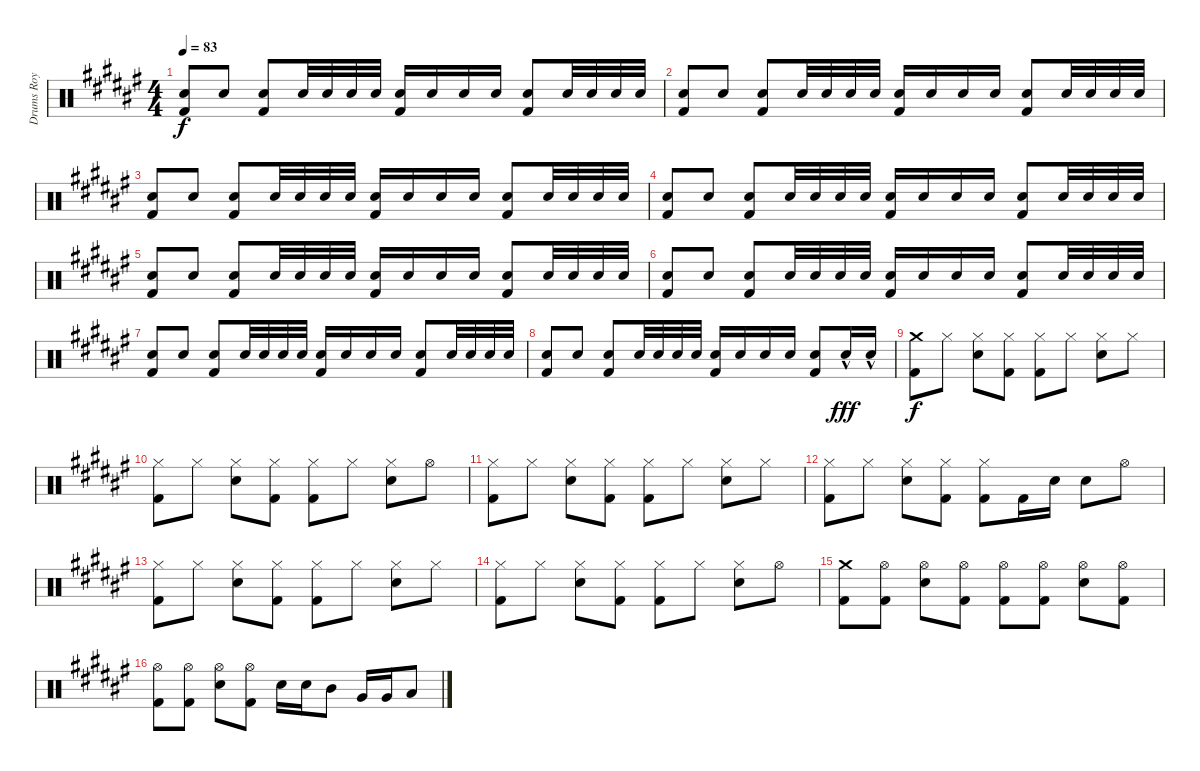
\track ("Drums Roy" "Drums Roy") {instrument percussion}
\staff {score}
\articulation defaults
\ts (4 4)
\tempo 83
\clef neutral
\ks d#minor
("Electric Snare (hit)" "Kick (hit) 2").8{dy f} "Electric Snare (hit)".8 ("Electric Snare (hit)" "Kick (hit) 2").8 "Electric Snare (hit)".32 "Electric Snare (hit)".32 "Electric Snare (hit)".32 "Electric Snare (hit)".32 ("Electric Snare (hit)" "Kick (hit) 2").16 "Electric Snare (hit)".16 "Electric Snare (hit)".16 "Electric Snare (hit)".16 ("Electric Snare (hit)" "Kick (hit) 2").8 "Electric Snare (hit)".32 "Electric Snare (hit)".32 "Electric Snare (hit)".32 "Electric Snare (hit)".32 |
("Electric Snare (hit)" "Kick (hit) 2").8 "Electric Snare (hit)".8 ("Electric Snare (hit)" "Kick (hit) 2").8 "Electric Snare (hit)".32 "Electric Snare (hit)".32 "Electric Snare (hit)".32 "Electric Snare (hit)".32 ("Electric Snare (hit)" "Kick (hit) 2").16 "Electric Snare (hit)".16 "Electric Snare (hit)".16 "Electric Snare (hit)".16 ("Electric Snare (hit)" "Kick (hit) 2").8 "Electric Snare (hit)".32 "Electric Snare (hit)".32 "Electric Snare (hit)".32 "Electric Snare (hit)".32 |
("Electric Snare (hit)" "Kick (hit) 2").8 "Electric Snare (hit)".8 ("Electric Snare (hit)" "Kick (hit) 2").8 "Electric Snare (hit)".32 "Electric Snare (hit)".32 "Electric Snare (hit)".32 "Electric Snare (hit)".32 ("Electric Snare (hit)" "Kick (hit) 2").16 "Electric Snare (hit)".16 "Electric Snare (hit)".16 "Electric Snare (hit)".16 ("Electric Snare (hit)" "Kick (hit) 2").8 "Electric Snare (hit)".32 "Electric Snare (hit)".32 "Electric Snare (hit)".32 "Electric Snare (hit)".32 |
("Electric Snare (hit)" "Kick (hit) 2").8 "Electric Snare (hit)".8 ("Electric Snare (hit)" "Kick (hit) 2").8 "Electric Snare (hit)".32 "Electric Snare (hit)".32 "Electric Snare (hit)".32 "Electric Snare (hit)".32 ("Electric Snare (hit)" "Kick (hit) 2").16 "Electric Snare (hit)".16 "Electric Snare (hit)".16 "Electric Snare (hit)".16 ("Electric Snare (hit)" "Kick (hit) 2").8 "Electric Snare (hit)".32 "Electric Snare (hit)".32 "Electric Snare (hit)".32 "Electric Snare (hit)".32 |
("Electric Snare (hit)" "Kick (hit) 2").8 "Electric Snare (hit)".8 ("Electric Snare (hit)" "Kick (hit) 2").8 "Electric Snare (hit)".32 "Electric Snare (hit)".32 "Electric Snare (hit)".32 "Electric Snare (hit)".32 ("Electric Snare (hit)" "Kick (hit) 2").16 "Electric Snare (hit)".16 "Electric Snare (hit)".16 "Electric Snare (hit)".16 ("Electric Snare (hit)" "Kick (hit) 2").8 "Electric Snare (hit)".32 "Electric Snare (hit)".32 "Electric Snare (hit)".32 "Electric Snare (hit)".32 |
("Electric Snare (hit)" "Kick (hit) 2").8 "Electric Snare (hit)".8 ("Electric Snare (hit)" "Kick (hit) 2").8 "Electric Snare (hit)".32 "Electric Snare (hit)".32 "Electric Snare (hit)".32 "Electric Snare (hit)".32 ("Electric Snare (hit)" "Kick (hit) 2").16 "Electric Snare (hit)".16 "Electric Snare (hit)".16 "Electric Snare (hit)".16 ("Electric Snare (hit)" "Kick (hit) 2").8 "Electric Snare (hit)".32 "Electric Snare (hit)".32 "Electric Snare (hit)".32 "Electric Snare (hit)".32 |
("Electric Snare (hit)" "Kick (hit) 2").8 "Electric Snare (hit)".8 ("Electric Snare (hit)" "Kick (hit) 2").8 "Electric Snare (hit)".32 "Electric Snare (hit)".32 "Electric Snare (hit)".32 "Electric Snare (hit)".32 ("Electric Snare (hit)" "Kick (hit) 2").16 "Electric Snare (hit)".16 "Electric Snare (hit)".16 "Electric Snare (hit)".16 ("Electric Snare (hit)" "Kick (hit) 2").8 "Electric Snare (hit)".32 "Electric Snare (hit)".32 "Electric Snare (hit)".32 "Electric Snare (hit)".32 |
("Electric Snare (hit)" "Kick (hit) 2").8 "Electric Snare (hit)".8 ("Electric Snare (hit)" "Kick (hit) 2").8 "Electric Snare (hit)".32 "Electric Snare (hit)".32 "Electric Snare (hit)".32 "Electric Snare (hit)".32 ("Electric Snare (hit)" "Kick (hit) 2").16 "Electric Snare (hit)".16 "Electric Snare (hit)".16 "Electric Snare (hit)".16 ("Electric Snare (hit)" "Kick (hit) 2").8 "Electric Snare (hit)"{hac}.16{dy fff} "Electric Snare (hit)"{hac}.16 |
("Crash medium (hit)" "Kick (hit) 2").8{dy f} "Hi-Hat (closed)".8 ("Hi-Hat (closed)" "Electric Snare (hit)").8 ("Hi-Hat (closed)" "Kick (hit) 2").8 ("Hi-Hat (closed)" "Kick (hit) 2").8 "Hi-Hat (closed)".8 ("Hi-Hat (closed)" "Electric Snare (hit)").8 "Hi-Hat (closed)".8 |
("Hi-Hat (closed)" "Kick (hit) 2").8 "Hi-Hat (closed)".8 ("Hi-Hat (closed)" "Electric Snare (hit)").8 ("Hi-Hat (closed)" "Kick (hit) 2").8 ("Hi-Hat (closed)" "Kick (hit) 2").8 "Hi-Hat (closed)".8 ("Hi-Hat (closed)" "Electric Snare (hit)").8 "Hi-Hat (open)".8 |
("Hi-Hat (closed)" "Kick (hit) 2").8 "Hi-Hat (closed)".8 ("Hi-Hat (closed)" "Electric Snare (hit)").8 ("Hi-Hat (closed)" "Kick (hit) 2").8 ("Hi-Hat (closed)" "Kick (hit) 2").8 "Hi-Hat (closed)".8 ("Hi-Hat (closed)" "Electric Snare (hit)").8 "Hi-Hat (closed)".8 |
("Hi-Hat (closed)" "Kick (hit) 2").8 "Hi-Hat (closed)".8 ("Hi-Hat (closed)" "Electric Snare (hit)").8 ("Hi-Hat (closed)" "Kick (hit) 2").8 ("Hi-Hat (closed)" "Kick (hit) 2").8 "Kick (hit) 2".16 "Electric Snare (hit)".16 "Electric Snare (hit)".8 "Hi-Hat (open)".8 |
("Hi-Hat (closed)" "Kick (hit) 2").8 "Hi-Hat (closed)".8 ("Hi-Hat (closed)" "Electric Snare (hit)").8 ("Hi-Hat (closed)" "Kick (hit) 2").8 ("Hi-Hat (closed)" "Kick (hit) 2").8 "Hi-Hat (closed)".8 ("Hi-Hat (closed)" "Electric Snare (hit)").8 "Hi-Hat (closed)".8 |
("Hi-Hat (closed)" "Kick (hit) 2").8 "Hi-Hat (closed)".8 ("Hi-Hat (closed)" "Electric Snare (hit)").8 ("Hi-Hat (closed)" "Kick (hit) 2").8 ("Hi-Hat (closed)" "Kick (hit) 2").8 "Hi-Hat (closed)".8 ("Hi-Hat (closed)" "Electric Snare (hit)").8 "Hi-Hat (open)".8 |
("Crash medium (hit)" "Kick (hit) 2").8 ("Hi-Hat (open)" "Kick (hit) 2").8 ("Hi-Hat (open)" "Electric Snare (hit)").8 ("Hi-Hat (open)" "Kick (hit) 2").8 ("Hi-Hat (open)" "Kick (hit) 2").8 ("Hi-Hat (open)" "Kick (hit) 2").8 ("Hi-Hat (open)" "Electric Snare (hit)").8 ("Hi-Hat (open)" "Kick (hit) 2").8 |
("Hi-Hat (open)" "Kick (hit) 2").8 ("Hi-Hat (open)" "Kick (hit) 2").8 ("Hi-Hat (open)" "Electric Snare (hit)").8 ("Hi-Hat (open)" "Kick (hit) 2").8 "Electric Snare (hit)".16 "Electric Snare (hit)".16 "Mid Tom (hit)".8 "Very Low Tom (hit)".16 "Very Low Tom (hit)".16 "Low Floor Tom (hit)".8
